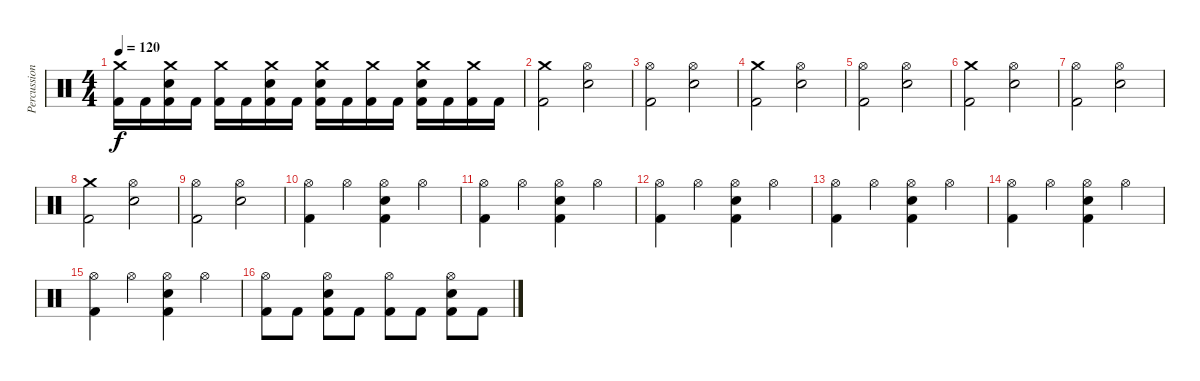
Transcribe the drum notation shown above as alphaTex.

\track ("Percussion" "Percussion") {instrument percussion}
\staff {score}
\articulation defaults
\ts (4 4)
\tempo 120
\clef neutral
\ks c
("Crash medium (hit)" "Kick (hit) 2").16{dy f} "Kick (hit) 2".16 ("Crash medium (hit)" "Electric Snare (hit)" "Kick (hit) 2").16 "Kick (hit) 2".16 ("Crash medium (hit)" "Kick (hit) 2").16 "Kick (hit) 2".16 ("Crash medium (hit)" "Electric Snare (hit)" "Kick (hit) 2").16 "Kick (hit) 2".16 ("Crash medium (hit)" "Electric Snare (hit)" "Kick (hit) 2").16 "Kick (hit) 2".16 ("Crash medium (hit)" "Kick (hit) 2").16 "Kick (hit) 2".16 ("Crash medium (hit)" "Electric Snare (hit)" "Kick (hit) 2").16 "Kick (hit) 2".16 ("Crash medium (hit)" "Kick (hit) 2").16 "Kick (hit) 2".16 |
("Crash medium (hit)" "Kick (hit) 2").2 ("Hi-Hat (open)" "Electric Snare (hit)").2 |
("Hi-Hat (open)" "Kick (hit) 2").2 ("Hi-Hat (open)" "Electric Snare (hit)").2 |
("Crash medium (hit)" "Kick (hit) 2").2 ("Hi-Hat (open)" "Electric Snare (hit)").2 |
("Hi-Hat (open)" "Kick (hit) 2").2 ("Hi-Hat (open)" "Electric Snare (hit)").2 |
("Crash medium (hit)" "Kick (hit) 2").2 ("Hi-Hat (open)" "Electric Snare (hit)").2 |
("Hi-Hat (open)" "Kick (hit) 2").2 ("Hi-Hat (open)" "Electric Snare (hit)").2 |
("Crash medium (hit)" "Kick (hit) 2").2 ("Hi-Hat (open)" "Electric Snare (hit)").2 |
("Hi-Hat (open)" "Kick (hit) 2").2 ("Hi-Hat (open)" "Electric Snare (hit)").2 |
("Hi-Hat (open)" "Kick (hit) 2").4 "Hi-Hat (open)".4 ("Hi-Hat (open)" "Electric Snare (hit)" "Kick (hit) 2").4 "Hi-Hat (open)".4 |
("Hi-Hat (open)" "Kick (hit) 2").4 "Hi-Hat (open)".4 ("Hi-Hat (open)" "Electric Snare (hit)" "Kick (hit) 2").4 "Hi-Hat (open)".4 |
("Hi-Hat (open)" "Kick (hit) 2").4 "Hi-Hat (open)".4 ("Hi-Hat (open)" "Electric Snare (hit)" "Kick (hit) 2").4 "Hi-Hat (open)".4 |
("Hi-Hat (open)" "Kick (hit) 2").4 "Hi-Hat (open)".4 ("Hi-Hat (open)" "Electric Snare (hit)" "Kick (hit) 2").4 "Hi-Hat (open)".4 |
("Hi-Hat (open)" "Kick (hit) 2").4 "Hi-Hat (open)".4 ("Hi-Hat (open)" "Electric Snare (hit)" "Kick (hit) 2").4 "Hi-Hat (open)".4 |
("Hi-Hat (open)" "Kick (hit) 2").4 "Hi-Hat (open)".4 ("Hi-Hat (open)" "Electric Snare (hit)" "Kick (hit) 2").4 "Hi-Hat (open)".4 |
("Hi-Hat (open)" "Kick (hit) 2").8 "Kick (hit) 2".8 ("Hi-Hat (open)" "Electric Snare (hit)" "Kick (hit) 2").8 "Kick (hit) 2".8 ("Hi-Hat (open)" "Kick (hit) 2").8 "Kick (hit) 2".8 ("Hi-Hat (open)" "Electric Snare (hit)" "Kick (hit) 2").8 "Kick (hit) 2".8
